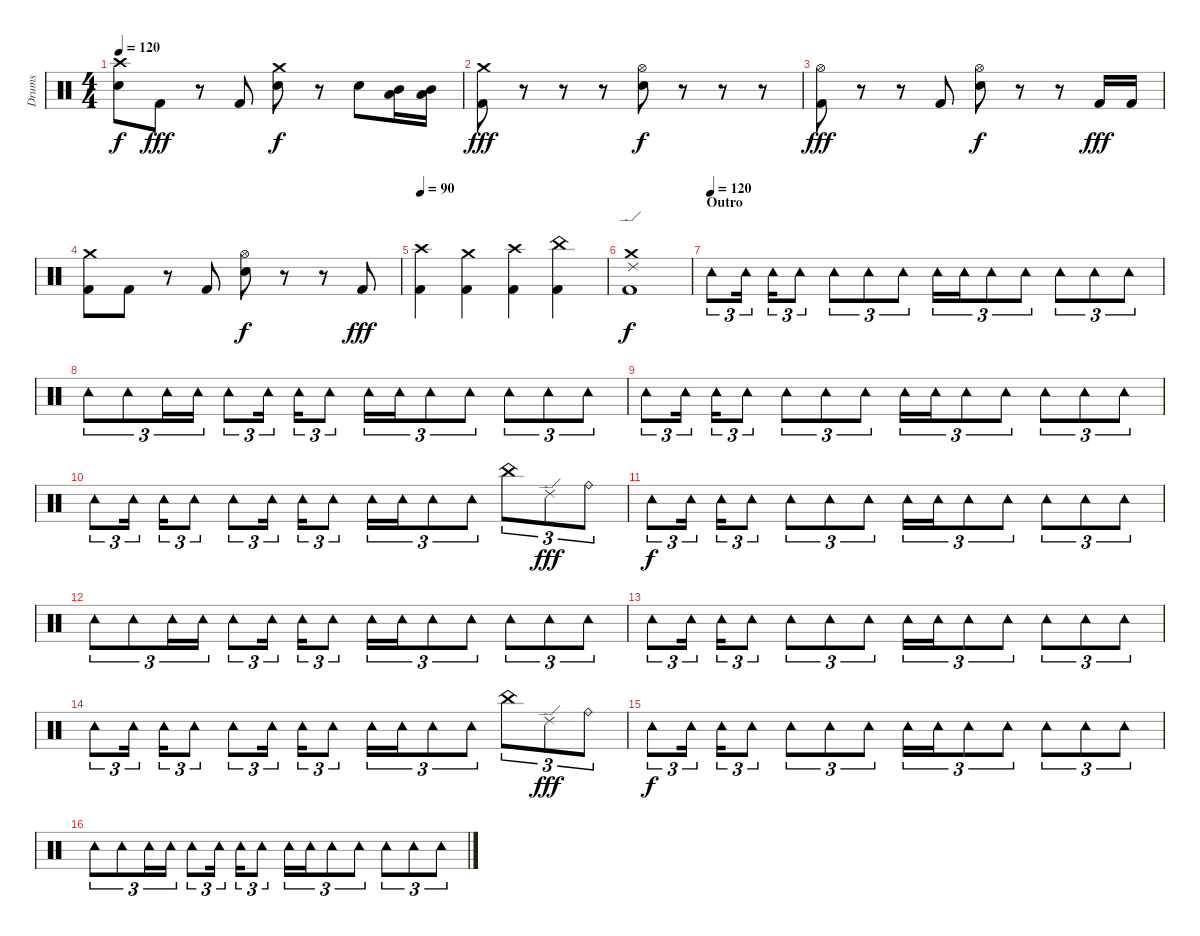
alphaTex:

\track ("Drums" "Drums") {instrument percussion}
\staff {score}
\articulation defaults
\ts (4 4)
\tempo 120
\clef neutral
\ks c
("Crash high (hit)" "Snare (hit) 2").8{dy f} "Kick (hit) 2".8{dy fff} r.8 "Kick (hit) 2".8 ("Crash medium (hit)" "Snare (hit) 2").8{dy f} r.8 "Snare (hit) 2".8 ("Mid Tom (hit)" "Low Tom (hit)").16 ("Mid Tom (hit)" "Low Tom (hit)").16 |
("Crash medium (hit)" "Kick (hit) 2").8{dy fff} r.8 r.8 r.8 ("Hi-Hat (open)" "Snare (hit) 2").8{dy f} r.8 r.8 r.8 |
("Hi-Hat (open)" "Kick (hit) 2").8{dy fff} r.8 r.8 "Kick (hit) 2".8 ("Hi-Hat (open)" "Snare (hit) 2").8{dy f} r.8 r.8 "Kick (hit) 2".16{dy fff} "Kick (hit) 2".16 |
("Crash medium (hit)" "Kick (hit) 2").8 "Kick (hit) 2".8 r.8 "Kick (hit) 2".8 ("Hi-Hat (open)" "Snare (hit) 2").8{dy f} r.8 r.8 "Kick (hit) 2".8{dy fff} |
\tempo 90
("Crash high (hit)" "Kick (hit) 2").4 ("Crash medium (hit)" "Kick (hit) 2").4 ("Crash high (hit)" "Kick (hit) 2").4 ("China (hit)" "Kick (hit) 2").4 |
("Crash medium (hit)" "Ride (edge) 2" "Kick (hit) 2").1{dy f} |
\section ("" "Outro")
\tempo (120)
"Tambourine (hit)".8{tu (3 2)} "Tambourine (hit)".16{tu (3 2)} "Tambourine (hit)".16{tu (3 2)} "Tambourine (hit)".8{tu (3 2)} "Tambourine (hit)".8{tu (3 2)} "Tambourine (hit)".8{tu (3 2)} "Tambourine (hit)".8{tu (3 2)} "Tambourine (hit)".16{tu (3 2)} "Tambourine (hit)".16{tu (3 2)} "Tambourine (hit)".8{tu (3 2)} "Tambourine (hit)".8{tu (3 2)} "Tambourine (hit)".8{tu (3 2)} "Tambourine (hit)".8{tu (3 2)} "Tambourine (hit)".8{tu (3 2)} |
"Tambourine (hit)".8{tu (3 2)} "Tambourine (hit)".8{tu (3 2)} "Tambourine (hit)".16{tu (3 2)} "Tambourine (hit)".16{tu (3 2)} "Tambourine (hit)".8{tu (3 2)} "Tambourine (hit)".16{tu (3 2)} "Tambourine (hit)".16{tu (3 2)} "Tambourine (hit)".8{tu (3 2)} "Tambourine (hit)".16{tu (3 2)} "Tambourine (hit)".16{tu (3 2)} "Tambourine (hit)".8{tu (3 2)} "Tambourine (hit)".8{tu (3 2)} "Tambourine (hit)".8{tu (3 2)} "Tambourine (hit)".8{tu (3 2)} "Tambourine (hit)".8{tu (3 2)} |
"Tambourine (hit)".8{tu (3 2)} "Tambourine (hit)".16{tu (3 2)} "Tambourine (hit)".16{tu (3 2)} "Tambourine (hit)".8{tu (3 2)} "Tambourine (hit)".8{tu (3 2)} "Tambourine (hit)".8{tu (3 2)} "Tambourine (hit)".8{tu (3 2)} "Tambourine (hit)".16{tu (3 2)} "Tambourine (hit)".16{tu (3 2)} "Tambourine (hit)".8{tu (3 2)} "Tambourine (hit)".8{tu (3 2)} "Tambourine (hit)".8{tu (3 2)} "Tambourine (hit)".8{tu (3 2)} "Tambourine (hit)".8{tu (3 2)} |
"Tambourine (hit)".8{tu (3 2)} "Tambourine (hit)".16{tu (3 2)} "Tambourine (hit)".16{tu (3 2)} "Tambourine (hit)".8{tu (3 2)} "Tambourine (hit)".8{tu (3 2)} "Tambourine (hit)".16{tu (3 2)} "Tambourine (hit)".16{tu (3 2)} "Tambourine (hit)".8{tu (3 2)} "Tambourine (hit)".16{tu (3 2)} "Tambourine (hit)".16{tu (3 2)} "Tambourine (hit)".8{tu (3 2)} "Tambourine (hit)".8{tu (3 2)} "China (hit)".8{tu (3 2)} "Ride (edge) 2".8{tu (3 2) dy fff} "Ride (bell)".8{tu (3 2)} |
"Tambourine (hit)".8{tu (3 2) dy f} "Tambourine (hit)".16{tu (3 2)} "Tambourine (hit)".16{tu (3 2)} "Tambourine (hit)".8{tu (3 2)} "Tambourine (hit)".8{tu (3 2)} "Tambourine (hit)".8{tu (3 2)} "Tambourine (hit)".8{tu (3 2)} "Tambourine (hit)".16{tu (3 2)} "Tambourine (hit)".16{tu (3 2)} "Tambourine (hit)".8{tu (3 2)} "Tambourine (hit)".8{tu (3 2)} "Tambourine (hit)".8{tu (3 2)} "Tambourine (hit)".8{tu (3 2)} "Tambourine (hit)".8{tu (3 2)} |
"Tambourine (hit)".8{tu (3 2)} "Tambourine (hit)".8{tu (3 2)} "Tambourine (hit)".16{tu (3 2)} "Tambourine (hit)".16{tu (3 2)} "Tambourine (hit)".8{tu (3 2)} "Tambourine (hit)".16{tu (3 2)} "Tambourine (hit)".16{tu (3 2)} "Tambourine (hit)".8{tu (3 2)} "Tambourine (hit)".16{tu (3 2)} "Tambourine (hit)".16{tu (3 2)} "Tambourine (hit)".8{tu (3 2)} "Tambourine (hit)".8{tu (3 2)} "Tambourine (hit)".8{tu (3 2)} "Tambourine (hit)".8{tu (3 2)} "Tambourine (hit)".8{tu (3 2)} |
"Tambourine (hit)".8{tu (3 2)} "Tambourine (hit)".16{tu (3 2)} "Tambourine (hit)".16{tu (3 2)} "Tambourine (hit)".8{tu (3 2)} "Tambourine (hit)".8{tu (3 2)} "Tambourine (hit)".8{tu (3 2)} "Tambourine (hit)".8{tu (3 2)} "Tambourine (hit)".16{tu (3 2)} "Tambourine (hit)".16{tu (3 2)} "Tambourine (hit)".8{tu (3 2)} "Tambourine (hit)".8{tu (3 2)} "Tambourine (hit)".8{tu (3 2)} "Tambourine (hit)".8{tu (3 2)} "Tambourine (hit)".8{tu (3 2)} |
"Tambourine (hit)".8{tu (3 2)} "Tambourine (hit)".16{tu (3 2)} "Tambourine (hit)".16{tu (3 2)} "Tambourine (hit)".8{tu (3 2)} "Tambourine (hit)".8{tu (3 2)} "Tambourine (hit)".16{tu (3 2)} "Tambourine (hit)".16{tu (3 2)} "Tambourine (hit)".8{tu (3 2)} "Tambourine (hit)".16{tu (3 2)} "Tambourine (hit)".16{tu (3 2)} "Tambourine (hit)".8{tu (3 2)} "Tambourine (hit)".8{tu (3 2)} "China (hit)".8{tu (3 2)} "Ride (edge) 2".8{tu (3 2) dy fff} "Ride (bell)".8{tu (3 2)} |
"Tambourine (hit)".8{tu (3 2) dy f volume 8} "Tambourine (hit)".16{tu (3 2)} "Tambourine (hit)".16{tu (3 2)} "Tambourine (hit)".8{tu (3 2)} "Tambourine (hit)".8{tu (3 2)} "Tambourine (hit)".8{tu (3 2)} "Tambourine (hit)".8{tu (3 2)} "Tambourine (hit)".16{tu (3 2)} "Tambourine (hit)".16{tu (3 2)} "Tambourine (hit)".8{tu (3 2)} "Tambourine (hit)".8{tu (3 2)} "Tambourine (hit)".8{tu (3 2)} "Tambourine (hit)".8{tu (3 2)} "Tambourine (hit)".8{tu (3 2)} |
"Tambourine (hit)".8{tu (3 2)} "Tambourine (hit)".8{tu (3 2)} "Tambourine (hit)".16{tu (3 2)} "Tambourine (hit)".16{tu (3 2)} "Tambourine (hit)".8{tu (3 2)} "Tambourine (hit)".16{tu (3 2)} "Tambourine (hit)".16{tu (3 2)} "Tambourine (hit)".8{tu (3 2)} "Tambourine (hit)".16{tu (3 2)} "Tambourine (hit)".16{tu (3 2)} "Tambourine (hit)".8{tu (3 2)} "Tambourine (hit)".8{tu (3 2)} "Tambourine (hit)".8{tu (3 2)} "Tambourine (hit)".8{tu (3 2)} "Tambourine (hit)".8{tu (3 2)}
